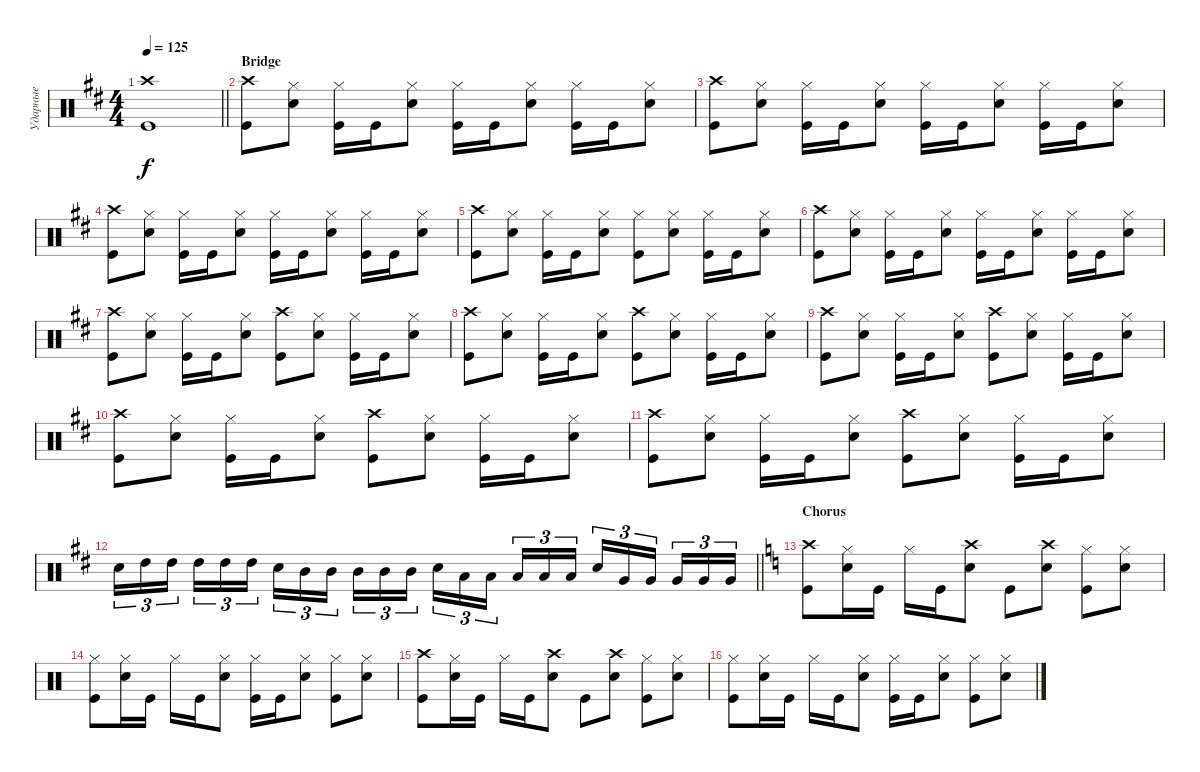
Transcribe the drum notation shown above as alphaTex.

\track ("Ударные" "Ударные") {instrument percussion}
\staff {score}
\articulation defaults
\ts (4 4)
\tempo 125
\clef neutral
\barLineRight lightlight
\ks bminor
("Kick (hit)" "Crash high (hit)").1{dy f} |
\section ("" "Bridge")
("Kick (hit)" "Crash high (hit)").8 ("Snare (hit) 2" "Hi-Hat (closed)").8 ("Hi-Hat (closed)" "Kick (hit)").16 "Kick (hit)".16 ("Snare (hit) 2" "Hi-Hat (closed)").8 ("Kick (hit)" "Hi-Hat (closed)").16 "Kick (hit)".16 ("Snare (hit) 2" "Hi-Hat (closed)").8 ("Kick (hit)" "Hi-Hat (closed)").16 "Kick (hit)".16 ("Snare (hit) 2" "Hi-Hat (closed)").8 |
("Kick (hit)" "Crash high (hit)").8 ("Snare (hit) 2" "Hi-Hat (closed)").8 ("Hi-Hat (closed)" "Kick (hit)").16 "Kick (hit)".16 ("Snare (hit) 2" "Hi-Hat (closed)").8 ("Kick (hit)" "Hi-Hat (closed)").16 "Kick (hit)".16 ("Snare (hit) 2" "Hi-Hat (closed)").8 ("Kick (hit)" "Hi-Hat (closed)").16 "Kick (hit)".16 ("Snare (hit) 2" "Hi-Hat (closed)").8 |
("Kick (hit)" "Crash high (hit)").8 ("Snare (hit) 2" "Hi-Hat (closed)").8 ("Hi-Hat (closed)" "Kick (hit)").16 "Kick (hit)".16 ("Snare (hit) 2" "Hi-Hat (closed)").8 ("Kick (hit)" "Hi-Hat (closed)").16 "Kick (hit)".16 ("Snare (hit) 2" "Hi-Hat (closed)").8 ("Kick (hit)" "Hi-Hat (closed)").16 "Kick (hit)".16 ("Snare (hit) 2" "Hi-Hat (closed)").8 |
("Kick (hit)" "Crash high (hit)").8 ("Snare (hit) 2" "Hi-Hat (closed)").8 ("Hi-Hat (closed)" "Kick (hit)").16 "Kick (hit)".16 ("Snare (hit) 2" "Hi-Hat (closed)").8 ("Kick (hit)" "Hi-Hat (closed)").8 ("Snare (hit) 2" "Hi-Hat (closed)").8 ("Kick (hit)" "Hi-Hat (closed)").16 "Kick (hit)".16 ("Snare (hit) 2" "Hi-Hat (closed)").8 |
("Kick (hit)" "Crash high (hit)").8 ("Snare (hit) 2" "Hi-Hat (closed)").8 ("Hi-Hat (closed)" "Kick (hit)").16 "Kick (hit)".16 ("Snare (hit) 2" "Hi-Hat (closed)").8 ("Kick (hit)" "Hi-Hat (closed)").16 "Kick (hit)".16 ("Snare (hit) 2" "Hi-Hat (closed)").8 ("Kick (hit)" "Hi-Hat (closed)").16 "Kick (hit)".16 ("Snare (hit) 2" "Hi-Hat (closed)").8 |
("Kick (hit)" "Crash high (hit)").8 ("Snare (hit) 2" "Hi-Hat (closed)").8 ("Hi-Hat (closed)" "Kick (hit)").16 "Kick (hit)".16 ("Snare (hit) 2" "Hi-Hat (closed)").8 ("Kick (hit)" "Crash high (hit)").8 ("Snare (hit) 2" "Hi-Hat (closed)").8 ("Hi-Hat (closed)" "Kick (hit)").16 "Kick (hit)".16 ("Snare (hit) 2" "Hi-Hat (closed)").8 |
("Kick (hit)" "Crash high (hit)").8 ("Snare (hit) 2" "Hi-Hat (closed)").8 ("Hi-Hat (closed)" "Kick (hit)").16 "Kick (hit)".16 ("Snare (hit) 2" "Hi-Hat (closed)").8 ("Kick (hit)" "Crash high (hit)").8 ("Snare (hit) 2" "Hi-Hat (closed)").8 ("Hi-Hat (closed)" "Kick (hit)").16 "Kick (hit)".16 ("Snare (hit) 2" "Hi-Hat (closed)").8 |
("Kick (hit)" "Crash high (hit)").8 ("Snare (hit) 2" "Hi-Hat (closed)").8 ("Hi-Hat (closed)" "Kick (hit)").16 "Kick (hit)".16 ("Snare (hit) 2" "Hi-Hat (closed)").8 ("Kick (hit)" "Crash high (hit)").8 ("Snare (hit) 2" "Hi-Hat (closed)").8 ("Hi-Hat (closed)" "Kick (hit)").16 "Kick (hit)".16 ("Snare (hit) 2" "Hi-Hat (closed)").8 |
("Kick (hit)" "Crash high (hit)").8 ("Snare (hit) 2" "Hi-Hat (closed)").8 ("Hi-Hat (closed)" "Kick (hit)").16 "Kick (hit)".16 ("Snare (hit) 2" "Hi-Hat (closed)").8 ("Kick (hit)" "Crash high (hit)").8 ("Snare (hit) 2" "Hi-Hat (closed)").8 ("Hi-Hat (closed)" "Kick (hit)").16 "Kick (hit)".16 ("Snare (hit) 2" "Hi-Hat (closed)").8 |
("Kick (hit)" "Crash high (hit)").8 ("Snare (hit) 2" "Hi-Hat (closed)").8 ("Hi-Hat (closed)" "Kick (hit)").16 "Kick (hit)".16 ("Snare (hit) 2" "Hi-Hat (closed)").8 ("Kick (hit)" "Crash high (hit)").8 ("Snare (hit) 2" "Hi-Hat (closed)").8 ("Hi-Hat (closed)" "Kick (hit)").16 "Kick (hit)".16 ("Snare (hit) 2" "Hi-Hat (closed)").8 |
\barLineRight lightlight "Snare (hit) 2".16{tu (3 2)} "High Tom (hit)".16{tu (3 2)} "High Tom (hit)".16{tu (3 2) beam splitsecondary} "High Tom (hit)".16{tu (3 2)} "High Tom (hit)".16{tu (3 2)} "High Tom (hit)".16{tu (3 2)} "Snare (hit) 2".16{tu (3 2)} "Mid Tom (hit)".16{tu (3 2)} "Mid Tom (hit)".16{tu (3 2) beam splitsecondary} "Mid Tom (hit)".16{tu (3 2)} "Mid Tom (hit)".16{tu (3 2)} "Mid Tom (hit)".16{tu (3 2)} "Snare (hit) 2".16{tu (3 2)} "Low Tom (hit)".16{tu (3 2)} "Low Tom (hit)".16{tu (3 2) beam splitsecondary} "Low Tom (hit)".16{tu (3 2)} "Low Tom (hit)".16{tu (3 2)} "Low Tom (hit)".16{tu (3 2)} "Snare (hit) 2".16{tu (3 2)} "Very Low Tom (hit)".16{tu (3 2)} "Very Low Tom (hit)".16{tu (3 2) beam splitsecondary} "Very Low Tom (hit)".16{tu (3 2)} "Very Low Tom (hit)".16{tu (3 2)} "Very Low Tom (hit)".16{tu (3 2)}
|
\section ("" "Chorus")
\ks aminor
("Kick (hit)" "Crash high (hit)").8 ("Snare (hit) 2" "Hi-Hat (closed)").16 "Kick (hit)".16 "Hi-Hat (closed)".16 "Kick (hit)".16 ("Snare (hit) 2" "Crash high (hit)").8 "Kick (hit)".8 ("Snare (hit) 2" "Crash high (hit)").8 ("Kick (hit)" "Hi-Hat (closed)").8 ("Snare (hit) 2" "Hi-Hat (closed)").8 |
("Kick (hit)" "Hi-Hat (closed)").8 ("Snare (hit) 2" "Hi-Hat (closed)").16 "Kick (hit)".16 "Hi-Hat (closed)".16 "Kick (hit)".16 ("Snare (hit) 2" "Hi-Hat (closed)").8 ("Kick (hit)" "Hi-Hat (closed)").16 "Kick (hit)".16 ("Snare (hit) 2" "Hi-Hat (closed)").8 ("Kick (hit)" "Hi-Hat (closed)").8 ("Snare (hit) 2" "Hi-Hat (closed)").8 |
("Kick (hit)" "Crash high (hit)").8 ("Snare (hit) 2" "Hi-Hat (closed)").16 "Kick (hit)".16 "Hi-Hat (closed)".16 "Kick (hit)".16 ("Snare (hit) 2" "Crash high (hit)").8 "Kick (hit)".8 ("Snare (hit) 2" "Crash high (hit)").8 ("Kick (hit)" "Hi-Hat (closed)").8 ("Snare (hit) 2" "Hi-Hat (closed)").8 |
("Kick (hit)" "Hi-Hat (closed)").8 ("Snare (hit) 2" "Hi-Hat (closed)").16 "Kick (hit)".16 "Hi-Hat (closed)".16 "Kick (hit)".16 ("Snare (hit) 2" "Hi-Hat (closed)").8 ("Kick (hit)" "Hi-Hat (closed)").16 "Kick (hit)".16 ("Snare (hit) 2" "Hi-Hat (closed)").8 ("Kick (hit)" "Hi-Hat (closed)").8 ("Snare (hit) 2" "Hi-Hat (closed)").8
